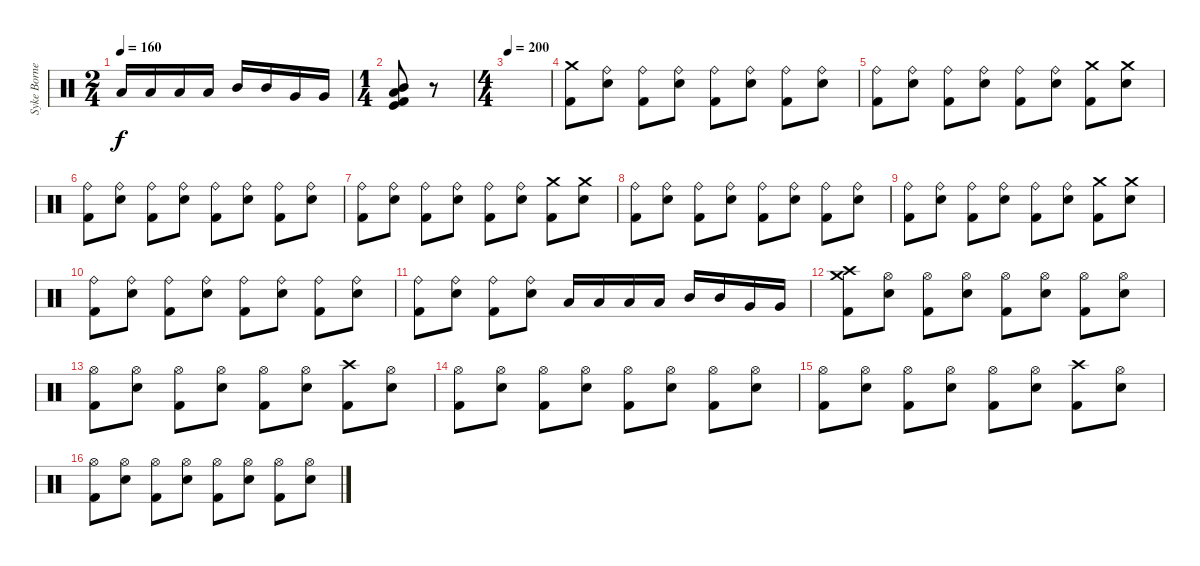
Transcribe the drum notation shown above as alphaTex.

\track ("Syke Bornetto (Drums)" "Syke Borne") {instrument percussion}
\staff {score}
\articulation defaults
\ts (2 4)
\tempo 160
\clef neutral
\ks c "Low Floor Tom (hit)".16{dy f} "Low Floor Tom (hit)".16 "Low Tom (hit)".16 "Low Tom (hit)".16 "Mid Tom (hit)".16 "Mid Tom (hit)".16 "Very Low Tom (hit)".16 "Very Low Tom (hit)".16
|
\ts (1 4)
("Low Tom (hit)" "Mid Tom (hit)" "Kick (hit)" "Kick (hit) 2").8 r.8 |
\ts (4 4)
\tempo 200
|
("Kick (hit) 2" "Crash medium (hit)").8 ("Electric Snare (hit)" "Ride (bell)").8 ("Kick (hit) 2" "Ride (bell)").8 ("Electric Snare (hit)" "Ride (bell)").8 ("Kick (hit) 2" "Ride (bell)").8 ("Electric Snare (hit)" "Ride (bell)").8 ("Kick (hit) 2" "Ride (bell)").8 ("Electric Snare (hit)" "Ride (bell)").8 |
("Kick (hit) 2" "Ride (bell)").8 ("Electric Snare (hit)" "Ride (bell)").8 ("Kick (hit) 2" "Ride (bell)").8 ("Electric Snare (hit)" "Ride (bell)").8 ("Kick (hit) 2" "Ride (bell)").8 ("Electric Snare (hit)" "Ride (bell)").8 ("Kick (hit) 2" "Crash medium (hit)").8 ("Electric Snare (hit)" "Crash medium (hit)").8 |
("Kick (hit) 2" "Ride (bell)").8 ("Electric Snare (hit)" "Ride (bell)").8 ("Kick (hit) 2" "Ride (bell)").8 ("Electric Snare (hit)" "Ride (bell)").8 ("Kick (hit) 2" "Ride (bell)").8 ("Electric Snare (hit)" "Ride (bell)").8 ("Kick (hit) 2" "Ride (bell)").8 ("Electric Snare (hit)" "Ride (bell)").8 |
("Kick (hit) 2" "Ride (bell)").8 ("Electric Snare (hit)" "Ride (bell)").8 ("Kick (hit) 2" "Ride (bell)").8 ("Electric Snare (hit)" "Ride (bell)").8 ("Kick (hit) 2" "Ride (bell)").8 ("Electric Snare (hit)" "Ride (bell)").8 ("Kick (hit) 2" "Crash medium (hit)").8 ("Electric Snare (hit)" "Crash medium (hit)").8 |
("Kick (hit) 2" "Ride (bell)").8 ("Electric Snare (hit)" "Ride (bell)").8 ("Kick (hit) 2" "Ride (bell)").8 ("Electric Snare (hit)" "Ride (bell)").8 ("Kick (hit) 2" "Ride (bell)").8 ("Electric Snare (hit)" "Ride (bell)").8 ("Kick (hit) 2" "Ride (bell)").8 ("Electric Snare (hit)" "Ride (bell)").8 |
("Kick (hit) 2" "Ride (bell)").8 ("Electric Snare (hit)" "Ride (bell)").8 ("Kick (hit) 2" "Ride (bell)").8 ("Electric Snare (hit)" "Ride (bell)").8 ("Kick (hit) 2" "Ride (bell)").8 ("Electric Snare (hit)" "Ride (bell)").8 ("Kick (hit) 2" "Crash medium (hit)").8 ("Electric Snare (hit)" "Crash medium (hit)").8 |
("Kick (hit) 2" "Ride (bell)").8 ("Electric Snare (hit)" "Ride (bell)").8 ("Kick (hit) 2" "Ride (bell)").8 ("Electric Snare (hit)" "Ride (bell)").8 ("Kick (hit) 2" "Ride (bell)").8 ("Electric Snare (hit)" "Ride (bell)").8 ("Kick (hit) 2" "Ride (bell)").8 ("Electric Snare (hit)" "Ride (bell)").8 |
("Kick (hit) 2" "Ride (bell)").8 ("Electric Snare (hit)" "Ride (bell)").8 ("Kick (hit) 2" "Ride (bell)").8 ("Electric Snare (hit)" "Ride (bell)").8 "Low Floor Tom (hit)".16 "Low Floor Tom (hit)".16 "Low Tom (hit)".16 "Low Tom (hit)".16 "Mid Tom (hit)".16 "Mid Tom (hit)".16 "Very Low Tom (hit)".16 "Very Low Tom (hit)".16 |
("Kick (hit) 2" "Crash medium (hit)" "Crash high (hit)").8 ("Electric Snare (hit)" "Hi-Hat (open)").8 ("Kick (hit) 2" "Hi-Hat (open)").8 ("Electric Snare (hit)" "Hi-Hat (open)").8 ("Kick (hit) 2" "Hi-Hat (open)").8 ("Electric Snare (hit)" "Hi-Hat (open)").8 ("Kick (hit) 2" "Hi-Hat (open)").8 ("Electric Snare (hit)" "Hi-Hat (open)").8 |
("Kick (hit) 2" "Hi-Hat (open)").8 ("Electric Snare (hit)" "Hi-Hat (open)").8 ("Kick (hit) 2" "Hi-Hat (open)").8 ("Electric Snare (hit)" "Hi-Hat (open)").8 ("Kick (hit) 2" "Hi-Hat (open)").8 ("Electric Snare (hit)" "Hi-Hat (open)").8 ("Kick (hit) 2" "Crash high (hit)").8 ("Electric Snare (hit)" "Hi-Hat (open)").8 |
("Kick (hit) 2" "Hi-Hat (open)").8 ("Electric Snare (hit)" "Hi-Hat (open)").8 ("Kick (hit) 2" "Hi-Hat (open)").8 ("Electric Snare (hit)" "Hi-Hat (open)").8 ("Kick (hit) 2" "Hi-Hat (open)").8 ("Electric Snare (hit)" "Hi-Hat (open)").8 ("Kick (hit) 2" "Hi-Hat (open)").8 ("Electric Snare (hit)" "Hi-Hat (open)").8 |
("Kick (hit) 2" "Hi-Hat (open)").8 ("Electric Snare (hit)" "Hi-Hat (open)").8 ("Kick (hit) 2" "Hi-Hat (open)").8 ("Electric Snare (hit)" "Hi-Hat (open)").8 ("Kick (hit) 2" "Hi-Hat (open)").8 ("Electric Snare (hit)" "Hi-Hat (open)").8 ("Kick (hit) 2" "Crash high (hit)").8 ("Electric Snare (hit)" "Hi-Hat (open)").8 |
("Kick (hit) 2" "Hi-Hat (open)").8 ("Electric Snare (hit)" "Hi-Hat (open)").8 ("Kick (hit) 2" "Hi-Hat (open)").8 ("Electric Snare (hit)" "Hi-Hat (open)").8 ("Kick (hit) 2" "Hi-Hat (open)").8 ("Electric Snare (hit)" "Hi-Hat (open)").8 ("Kick (hit) 2" "Hi-Hat (open)").8 ("Electric Snare (hit)" "Hi-Hat (open)").8
